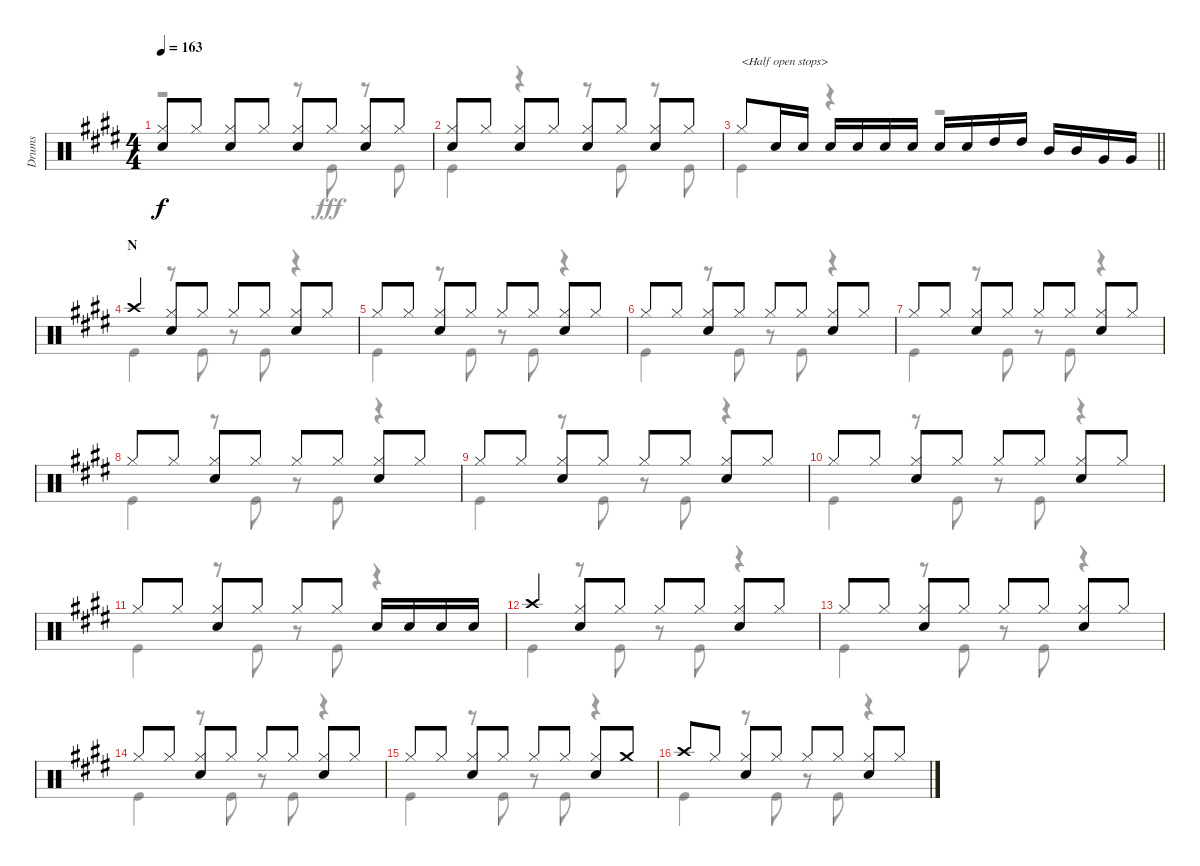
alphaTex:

\track ("Drums" "Drums") {instrument percussion}
\staff {score}
\articulation defaults
\voice
\ts (4 4)
\tempo 163
\clef neutral
\ks e
("Hi-Hat (closed)" "Snare (hit) 2").8{dy f} "Hi-Hat (closed)".8 ("Hi-Hat (closed)" "Snare (hit) 2").8 "Hi-Hat (closed)".8 ("Hi-Hat (closed)" "Snare (hit) 2").8 "Hi-Hat (closed)".8 ("Hi-Hat (closed)" "Snare (hit) 2").8 "Hi-Hat (closed)".8 |
("Hi-Hat (closed)" "Snare (hit) 2").8 "Hi-Hat (closed)".8 ("Hi-Hat (closed)" "Snare (hit) 2").8 "Hi-Hat (closed)".8 ("Hi-Hat (closed)" "Snare (hit) 2").8 "Hi-Hat (closed)".8 ("Hi-Hat (closed)" "Snare (hit) 2").8 "Hi-Hat (closed)".8 |
\barLineRight lightlight "Hi-Hat (closed)".8{txt "<Half open stops>"} "Snare (hit) 2".16 "Snare (hit) 2".16 "Snare (hit) 2".16 "Snare (hit) 2".16 "Snare (hit) 2".16 "Snare (hit) 2".16 "Snare (hit) 2".16 "Snare (hit) 2".16 "High Tom (hit)".16 "High Tom (hit)".16 "Mid Tom (hit)".16 "Mid Tom (hit)".16 "Very Low Tom (hit)".16 "Very Low Tom (hit)".16
|
\section ("" "N")
"Crash high (hit)".4 ("Hi-Hat (closed)" "Snare (hit) 2").8 "Hi-Hat (closed)".8 "Hi-Hat (closed)".8 "Hi-Hat (closed)".8 ("Hi-Hat (closed)" "Snare (hit) 2").8 "Hi-Hat (closed)".8 |
"Hi-Hat (closed)".8 "Hi-Hat (closed)".8 ("Hi-Hat (closed)" "Snare (hit) 2").8 "Hi-Hat (closed)".8 "Hi-Hat (closed)".8 "Hi-Hat (closed)".8 ("Hi-Hat (closed)" "Snare (hit) 2").8 "Hi-Hat (closed)".8 |
"Hi-Hat (closed)".8 "Hi-Hat (closed)".8 ("Hi-Hat (closed)" "Snare (hit) 2").8 "Hi-Hat (closed)".8 "Hi-Hat (closed)".8 "Hi-Hat (closed)".8 ("Hi-Hat (closed)" "Snare (hit) 2").8 "Hi-Hat (closed)".8 |
"Hi-Hat (closed)".8 "Hi-Hat (closed)".8 ("Hi-Hat (closed)" "Snare (hit) 2").8 "Hi-Hat (closed)".8 "Hi-Hat (closed)".8 "Hi-Hat (closed)".8 ("Hi-Hat (closed)" "Snare (hit) 2").8 "Hi-Hat (closed)".8 |
"Hi-Hat (closed)".8 "Hi-Hat (closed)".8 ("Hi-Hat (closed)" "Snare (hit) 2").8 "Hi-Hat (closed)".8 "Hi-Hat (closed)".8 "Hi-Hat (closed)".8 ("Hi-Hat (closed)" "Snare (hit) 2").8 "Hi-Hat (closed)".8 |
"Hi-Hat (closed)".8 "Hi-Hat (closed)".8 ("Hi-Hat (closed)" "Snare (hit) 2").8 "Hi-Hat (closed)".8 "Hi-Hat (closed)".8 "Hi-Hat (closed)".8 ("Hi-Hat (closed)" "Snare (hit) 2").8 "Hi-Hat (closed)".8 |
"Hi-Hat (closed)".8 "Hi-Hat (closed)".8 ("Hi-Hat (closed)" "Snare (hit) 2").8 "Hi-Hat (closed)".8 "Hi-Hat (closed)".8 "Hi-Hat (closed)".8 ("Hi-Hat (closed)" "Snare (hit) 2").8 "Hi-Hat (closed)".8 |
"Hi-Hat (closed)".8 "Hi-Hat (closed)".8 ("Hi-Hat (closed)" "Snare (hit) 2").8 "Hi-Hat (closed)".8 "Hi-Hat (closed)".8 "Hi-Hat (closed)".8 "Snare (hit) 2".16 "Snare (hit) 2".16 "Snare (hit) 2".16 "Snare (hit) 2".16 |
"Crash high (hit)".4 ("Hi-Hat (closed)" "Snare (hit) 2").8 "Hi-Hat (closed)".8 "Hi-Hat (closed)".8 "Hi-Hat (closed)".8 ("Hi-Hat (closed)" "Snare (hit) 2").8 "Hi-Hat (closed)".8 |
"Hi-Hat (closed)".8 "Hi-Hat (closed)".8 ("Hi-Hat (closed)" "Snare (hit) 2").8 "Hi-Hat (closed)".8 "Hi-Hat (closed)".8 "Hi-Hat (closed)".8 ("Hi-Hat (closed)" "Snare (hit) 2").8 "Hi-Hat (closed)".8 |
"Hi-Hat (closed)".8 "Hi-Hat (closed)".8 ("Hi-Hat (closed)" "Snare (hit) 2").8 "Hi-Hat (closed)".8 "Hi-Hat (closed)".8 "Hi-Hat (closed)".8 ("Hi-Hat (closed)" "Snare (hit) 2").8 "Hi-Hat (closed)".8 |
"Hi-Hat (closed)".8 "Hi-Hat (closed)".8 ("Hi-Hat (closed)" "Snare (hit) 2").8 "Hi-Hat (closed)".8 "Hi-Hat (closed)".8 "Hi-Hat (closed)".8 ("Hi-Hat (closed)" "Snare (hit) 2").8 "Crash medium (hit)".8 |
"Crash high (hit)".8 "Hi-Hat (closed)".8 ("Hi-Hat (closed)" "Snare (hit) 2").8 "Hi-Hat (closed)".8 "Hi-Hat (closed)".8 "Hi-Hat (closed)".8 ("Hi-Hat (closed)" "Snare (hit) 2").8 "Hi-Hat (closed)".8
\voice
\clef neutral
\ottava regular
\simile none
\ks e
r.2{dy fff} r.8 "Kick (hit)".8 r.8 "Kick (hit)".8 |
"Kick (hit)".4 r.4 r.8 "Kick (hit)".8 r.8 "Kick (hit)".8 |
\barLineRight lightlight "Kick (hit)".4
r.4 r.2 |
"Kick (hit)".4 r.8 "Kick (hit)".8 r.8 "Kick (hit)".8 r.4 |
"Kick (hit)".4 r.8 "Kick (hit)".8 r.8 "Kick (hit)".8 r.4 |
"Kick (hit)".4 r.8 "Kick (hit)".8 r.8 "Kick (hit)".8 r.4 |
"Kick (hit)".4 r.8 "Kick (hit)".8 r.8 "Kick (hit)".8 r.4 |
"Kick (hit)".4 r.8 "Kick (hit)".8 r.8 "Kick (hit)".8 r.4 |
"Kick (hit)".4 r.8 "Kick (hit)".8 r.8 "Kick (hit)".8 r.4 |
"Kick (hit)".4 r.8 "Kick (hit)".8 r.8 "Kick (hit)".8 r.4 |
"Kick (hit)".4 r.8 "Kick (hit)".8 r.8 "Kick (hit)".8 r.4 |
"Kick (hit)".4 r.8 "Kick (hit)".8 r.8 "Kick (hit)".8 r.4 |
"Kick (hit)".4 r.8 "Kick (hit)".8 r.8 "Kick (hit)".8 r.4 |
"Kick (hit)".4 r.8 "Kick (hit)".8 r.8 "Kick (hit)".8 r.4 |
"Kick (hit)".4 r.8 "Kick (hit)".8 r.8 "Kick (hit)".8 r.4 |
"Kick (hit)".4 r.8 "Kick (hit)".8 r.8 "Kick (hit)".8 r.4
